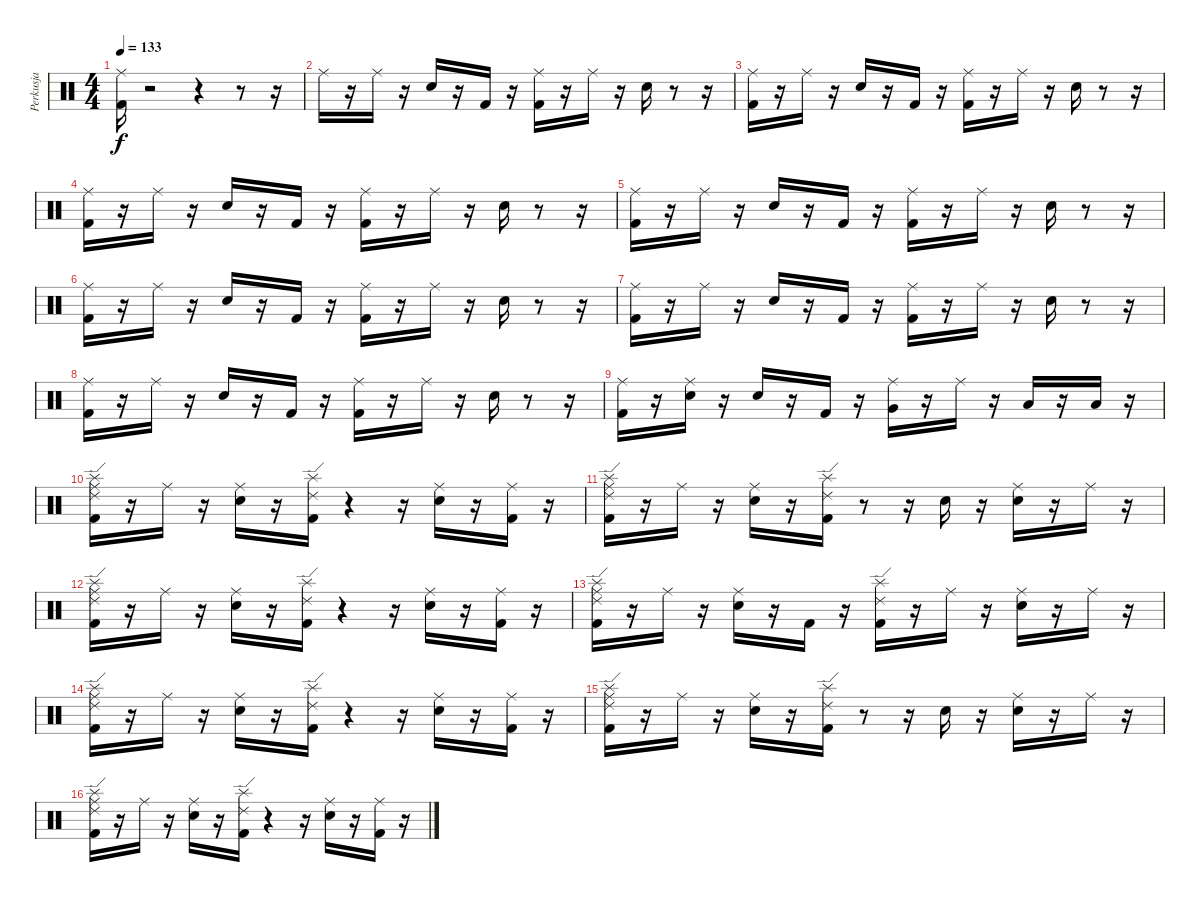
\track ("Perkusja" "Perkusja") {instrument percussion}
\staff {score}
\articulation defaults
\ts (4 4)
\tempo 133
\clef neutral
\ks c
("Kick (hit) 2" "Ride (middle)").16{dy f} r.2 r.4 r.8 r.16 |
"Ride (middle)".16 r.16 "Ride (middle)".16 r.16 "Snare (hit) 2".16 r.16 "Kick (hit) 2".16 r.16 ("Ride (middle)" "Kick (hit) 2").16 r.16 "Ride (middle)".16 r.16 "Snare (hit) 2".16 r.8 r.16 |
("Ride (middle)" "Kick (hit) 2").16 r.16 "Ride (middle)".16 r.16 "Snare (hit) 2".16 r.16 "Kick (hit) 2".16 r.16 ("Ride (middle)" "Kick (hit) 2").16 r.16 "Ride (middle)".16 r.16 "Snare (hit) 2".16 r.8 r.16 |
("Kick (hit) 2" "Ride (middle)").16 r.16 "Ride (middle)".16 r.16 "Snare (hit) 2".16 r.16 "Kick (hit) 2".16 r.16 ("Ride (middle)" "Kick (hit) 2").16 r.16 "Ride (middle)".16 r.16 "Snare (hit) 2".16 r.8 r.16 |
("Ride (middle)" "Kick (hit) 2").16 r.16 "Ride (middle)".16 r.16 "Snare (hit) 2".16 r.16 "Kick (hit) 2".16 r.16 ("Ride (middle)" "Kick (hit) 2").16 r.16 "Ride (middle)".16 r.16 "Snare (hit) 2".16 r.8 r.16 |
("Kick (hit) 2" "Ride (middle)").16 r.16 "Ride (middle)".16 r.16 "Snare (hit) 2".16 r.16 "Kick (hit) 2".16 r.16 ("Ride (middle)" "Kick (hit) 2").16 r.16 "Ride (middle)".16 r.16 "Snare (hit) 2".16 r.8 r.16 |
("Ride (middle)" "Kick (hit) 2").16 r.16 "Ride (middle)".16 r.16 "Snare (hit) 2".16 r.16 "Kick (hit) 2".16 r.16 ("Ride (middle)" "Kick (hit) 2").16 r.16 "Ride (middle)".16 r.16 "Snare (hit) 2".16 r.8 r.16 |
("Kick (hit) 2" "Ride (middle)").16 r.16 "Ride (middle)".16 r.16 "Snare (hit) 2".16 r.16 "Kick (hit) 2".16 r.16 ("Ride (middle)" "Kick (hit) 2").16 r.16 "Ride (middle)".16 r.16 "Snare (hit) 2".16 r.8 r.16 |
("Ride (middle)" "Kick (hit) 2").16 r.16 ("Snare (hit) 2" "Ride (middle)").16 r.16 "Snare (hit) 2".16 r.16 "Kick (hit) 2".16 r.16 ("Very Low Tom (hit)" "Ride (middle)").16 r.16 "Ride (middle)".16 r.16 "Low Floor Tom (hit)".16 r.16 "Low Floor Tom (hit)".16 r.16 |
("Ride (middle)" "Ride (edge) 2" "Splash (hit)" "Kick (hit) 2").16 r.16 "Ride (middle)".16 r.16 ("Ride (middle)" "Snare (hit) 2").16 r.16 ("Splash (hit)" "Ride (edge) 2" "Kick (hit) 2").16 r.4 r.16 ("Ride (middle)" "Snare (hit) 2").16 r.16 ("Ride (middle)" "Kick (hit) 2").16 r.16 |
("Ride (middle)" "Ride (edge) 2" "Splash (hit)" "Kick (hit) 2").16 r.16 "Ride (middle)".16 r.16 ("Ride (middle)" "Snare (hit) 2").16 r.16 ("Splash (hit)" "Ride (edge) 2" "Kick (hit) 2").16 r.8 r.16 "Snare (hit) 2".16 r.16 ("Ride (middle)" "Snare (hit) 2").16 r.16 "Ride (middle)".16 r.16 |
("Ride (middle)" "Ride (edge) 2" "Splash (hit)" "Kick (hit) 2").16 r.16 "Ride (middle)".16 r.16 ("Ride (middle)" "Snare (hit) 2").16 r.16 ("Splash (hit)" "Ride (edge) 2" "Kick (hit) 2").16 r.4 r.16 ("Ride (middle)" "Snare (hit) 2").16 r.16 ("Ride (middle)" "Kick (hit) 2").16 r.16 |
("Ride (middle)" "Ride (edge) 2" "Splash (hit)" "Kick (hit) 2").16 r.16 "Ride (middle)".16 r.16 ("Ride (middle)" "Snare (hit) 2").16 r.16 "Kick (hit) 2".16 r.16 ("Ride (edge) 2" "Splash (hit)" "Kick (hit) 2").16 r.16 "Ride (middle)".16 r.16 ("Ride (middle)" "Snare (hit) 2").16 r.16 "Ride (middle)".16 r.16 |
("Ride (middle)" "Ride (edge) 2" "Splash (hit)" "Kick (hit) 2").16 r.16 "Ride (middle)".16 r.16 ("Ride (middle)" "Snare (hit) 2").16 r.16 ("Splash (hit)" "Ride (edge) 2" "Kick (hit) 2").16 r.4 r.16 ("Ride (middle)" "Snare (hit) 2").16 r.16 ("Ride (middle)" "Kick (hit) 2").16 r.16 |
("Ride (middle)" "Ride (edge) 2" "Splash (hit)" "Kick (hit) 2").16 r.16 "Ride (middle)".16 r.16 ("Ride (middle)" "Snare (hit) 2").16 r.16 ("Splash (hit)" "Ride (edge) 2" "Kick (hit) 2").16 r.8 r.16 "Snare (hit) 2".16 r.16 ("Ride (middle)" "Snare (hit) 2").16 r.16 "Ride (middle)".16 r.16 |
("Ride (middle)" "Ride (edge) 2" "Splash (hit)" "Kick (hit) 2").16 r.16 "Ride (middle)".16 r.16 ("Ride (middle)" "Snare (hit) 2").16 r.16 ("Splash (hit)" "Ride (edge) 2" "Kick (hit) 2").16 r.4 r.16 ("Ride (middle)" "Snare (hit) 2").16 r.16 ("Ride (middle)" "Kick (hit) 2").16 r.16
